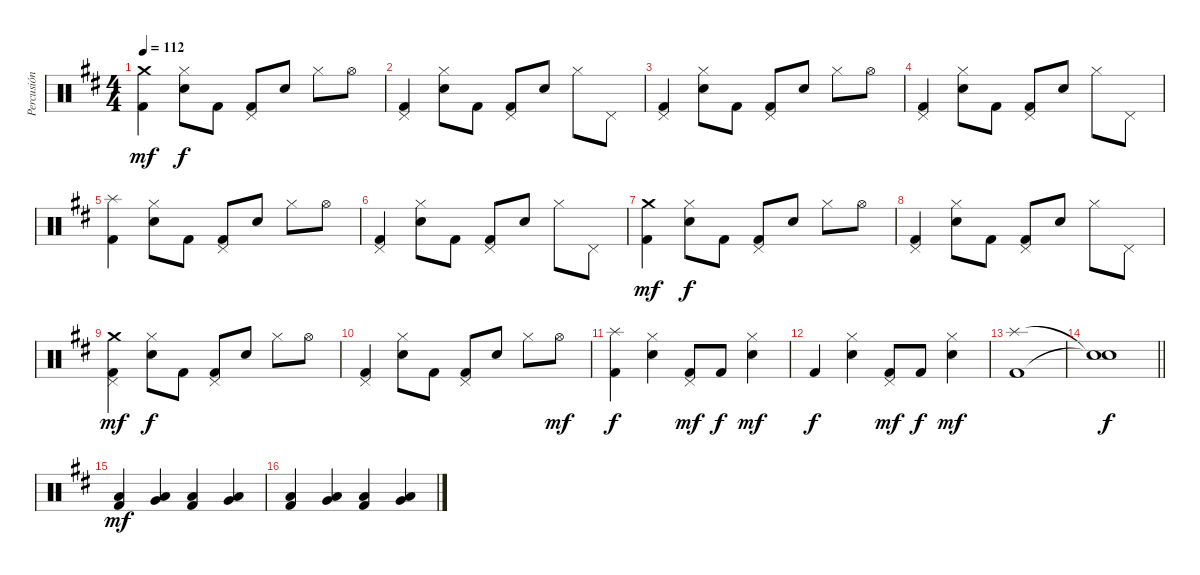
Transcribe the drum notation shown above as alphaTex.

\track ("Percusión" "Percusión") {instrument percussion}
\staff {score}
\articulation defaults
\ts (4 4)
\tempo 112
\clef neutral
\ks d
("Crash medium (hit)" "Kick (hit) 2").4{dy mf} ("Hi-Hat (closed)" "Snare (hit) 2").8{dy f} "Kick (hit) 2".8 ("Pedal Hi-Hat (hit)" "Kick (hit) 2").8 "Snare (hit) 2".8 "Hi-Hat (closed)".8 "Hi-Hat (open)".8 |
("Pedal Hi-Hat (hit)" "Kick (hit) 2").4 ("Hi-Hat (closed)" "Snare (hit) 2").8 "Kick (hit) 2".8 ("Pedal Hi-Hat (hit)" "Kick (hit) 2").8 "Snare (hit) 2".8 "Hi-Hat (closed)".8 "Pedal Hi-Hat (hit)".8 |
("Pedal Hi-Hat (hit)" "Kick (hit) 2").4 ("Hi-Hat (closed)" "Snare (hit) 2").8 "Kick (hit) 2".8 ("Pedal Hi-Hat (hit)" "Kick (hit) 2").8 "Snare (hit) 2".8 "Hi-Hat (closed)".8 "Hi-Hat (open)".8 |
("Pedal Hi-Hat (hit)" "Kick (hit) 2").4 ("Hi-Hat (closed)" "Snare (hit) 2").8 "Kick (hit) 2".8 ("Pedal Hi-Hat (hit)" "Kick (hit) 2").8 "Snare (hit) 2".8 "Hi-Hat (closed)".8 "Pedal Hi-Hat (hit)".8 |
("Splash (hit)" "Kick (hit) 2").4 ("Hi-Hat (closed)" "Snare (hit) 2").8 "Kick (hit) 2".8 ("Pedal Hi-Hat (hit)" "Kick (hit) 2").8 "Snare (hit) 2".8 "Hi-Hat (closed)".8 "Hi-Hat (open)".8 |
("Pedal Hi-Hat (hit)" "Kick (hit) 2").4 ("Hi-Hat (closed)" "Snare (hit) 2").8 "Kick (hit) 2".8 ("Pedal Hi-Hat (hit)" "Kick (hit) 2").8 "Snare (hit) 2".8 "Hi-Hat (closed)".8 "Pedal Hi-Hat (hit)".8 |
("Crash medium (hit)" "Kick (hit) 2").4{dy mf} ("Hi-Hat (closed)" "Snare (hit) 2").8{dy f} "Kick (hit) 2".8 ("Pedal Hi-Hat (hit)" "Kick (hit) 2").8 "Snare (hit) 2".8 "Hi-Hat (closed)".8 "Hi-Hat (open)".8 |
("Pedal Hi-Hat (hit)" "Kick (hit) 2").4 ("Hi-Hat (closed)" "Snare (hit) 2").8 "Kick (hit) 2".8 ("Pedal Hi-Hat (hit)" "Kick (hit) 2").8 "Snare (hit) 2".8 "Hi-Hat (closed)".8 "Pedal Hi-Hat (hit)".8 |
("Crash medium (hit)" "Pedal Hi-Hat (hit)" "Kick (hit) 2").4{dy mf} ("Hi-Hat (closed)" "Snare (hit) 2").8{dy f} "Kick (hit) 2".8 ("Pedal Hi-Hat (hit)" "Kick (hit) 2").8 "Snare (hit) 2".8 "Hi-Hat (closed)".8 "Hi-Hat (open)".8 |
("Pedal Hi-Hat (hit)" "Kick (hit) 2").4 ("Hi-Hat (closed)" "Snare (hit) 2").8 "Kick (hit) 2".8 ("Pedal Hi-Hat (hit)" "Kick (hit) 2").8 "Snare (hit) 2".8 "Hi-Hat (closed)".8 "Hi-Hat (open)".8{dy mf} |
("Splash (hit)" "Kick (hit) 2").4{dy f} ("Hi-Hat (closed)" "Snare (hit) 2").4 ("Pedal Hi-Hat (hit)" "Kick (hit) 2").8{dy mf} "Kick (hit) 2".8{dy f} ("Hi-Hat (closed)" "Snare (hit) 2").4{dy mf} |
"Kick (hit) 2".4{dy f} ("Hi-Hat (closed)" "Snare (hit) 2").4 ("Pedal Hi-Hat (hit)" "Kick (hit) 2").8{dy mf} "Kick (hit) 2".8{dy f} ("Hi-Hat (closed)" "Snare (hit) 2").4{dy mf} |
("Splash (hit)" "Kick (hit) 2").1 |
\barLineRight lightlight
("Snare (hit)"{t} "Snare (hit)"{t}).1{dy f} |
("Low Floor Tom (hit)" "Kick (hit) 2").4{dy mf} ("Very Low Tom (hit)" "Low Floor Tom (hit)").4 ("Low Floor Tom (hit)" "Kick (hit) 2").4 ("Very Low Tom (hit)" "Low Floor Tom (hit)").4 |
("Low Floor Tom (hit)" "Kick (hit) 2").4 ("Very Low Tom (hit)" "Low Floor Tom (hit)").4 ("Low Floor Tom (hit)" "Kick (hit) 2").4 ("Very Low Tom (hit)" "Low Floor Tom (hit)").4
